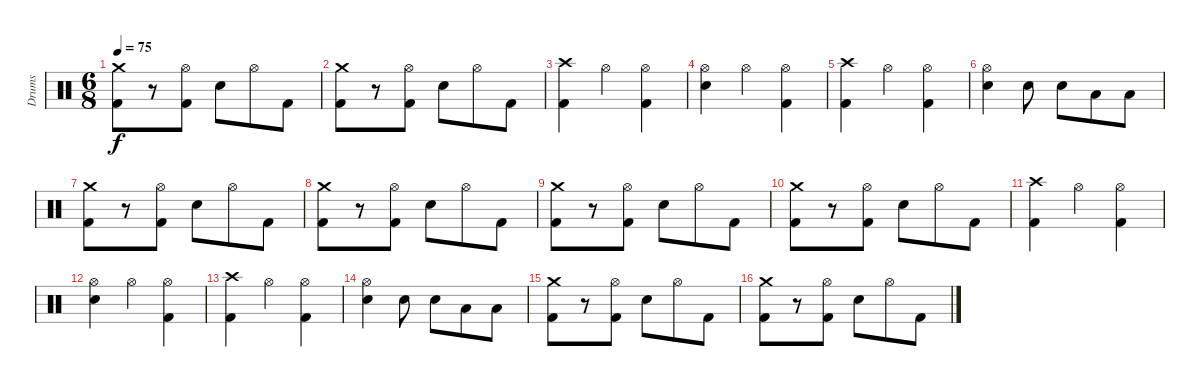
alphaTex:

\track ("Drums" "Drums") {instrument percussion}
\staff {score}
\articulation defaults
\ts (6 8)
\tempo 75
\clef neutral
\ks c
("Crash medium (hit)" "Kick (hit) 2").8{dy f} r.8 ("Hi-Hat (open)" "Kick (hit) 2").8 "Electric Snare (hit)".8 "Hi-Hat (open)".8 "Kick (hit) 2".8 |
("Crash medium (hit)" "Kick (hit) 2").8 r.8 ("Hi-Hat (open)" "Kick (hit) 2").8 "Electric Snare (hit)".8 "Hi-Hat (open)".8 "Kick (hit) 2".8 |
("Crash high (hit)" "Kick (hit) 2").4 "Hi-Hat (open)".4 ("Hi-Hat (open)" "Kick (hit) 2").4 |
("Hi-Hat (open)" "Electric Snare (hit)").4 "Hi-Hat (open)".4 ("Hi-Hat (open)" "Kick (hit) 2").4 |
("Crash high (hit)" "Kick (hit) 2").4 "Hi-Hat (open)".4 ("Hi-Hat (open)" "Kick (hit) 2").4 |
("Hi-Hat (open)" "Electric Snare (hit)").4 "Electric Snare (hit)".8 "Electric Snare (hit)".8 "Low Tom (hit)".8 "Low Tom (hit)".8 |
("Crash medium (hit)" "Kick (hit) 2").8 r.8 ("Hi-Hat (open)" "Kick (hit) 2").8 "Electric Snare (hit)".8 "Hi-Hat (open)".8 "Kick (hit) 2".8 |
("Crash medium (hit)" "Kick (hit) 2").8 r.8 ("Hi-Hat (open)" "Kick (hit) 2").8 "Electric Snare (hit)".8 "Hi-Hat (open)".8 "Kick (hit) 2".8 |
("Crash medium (hit)" "Kick (hit) 2").8 r.8 ("Hi-Hat (open)" "Kick (hit) 2").8 "Electric Snare (hit)".8 "Hi-Hat (open)".8 "Kick (hit) 2".8 |
("Crash medium (hit)" "Kick (hit) 2").8 r.8 ("Hi-Hat (open)" "Kick (hit) 2").8 "Electric Snare (hit)".8 "Hi-Hat (open)".8 "Kick (hit) 2".8 |
("Crash high (hit)" "Kick (hit) 2").4 "Hi-Hat (open)".4 ("Hi-Hat (open)" "Kick (hit) 2").4 |
("Hi-Hat (open)" "Electric Snare (hit)").4 "Hi-Hat (open)".4 ("Hi-Hat (open)" "Kick (hit) 2").4 |
("Crash high (hit)" "Kick (hit) 2").4 "Hi-Hat (open)".4 ("Hi-Hat (open)" "Kick (hit) 2").4 |
("Hi-Hat (open)" "Electric Snare (hit)").4 "Electric Snare (hit)".8 "Electric Snare (hit)".8 "Low Tom (hit)".8 "Low Tom (hit)".8 |
("Crash medium (hit)" "Kick (hit) 2").8 r.8 ("Hi-Hat (open)" "Kick (hit) 2").8 "Electric Snare (hit)".8 "Hi-Hat (open)".8 "Kick (hit) 2".8 |
("Crash medium (hit)" "Kick (hit) 2").8 r.8 ("Hi-Hat (open)" "Kick (hit) 2").8 "Electric Snare (hit)".8 "Hi-Hat (open)".8 "Kick (hit) 2".8
